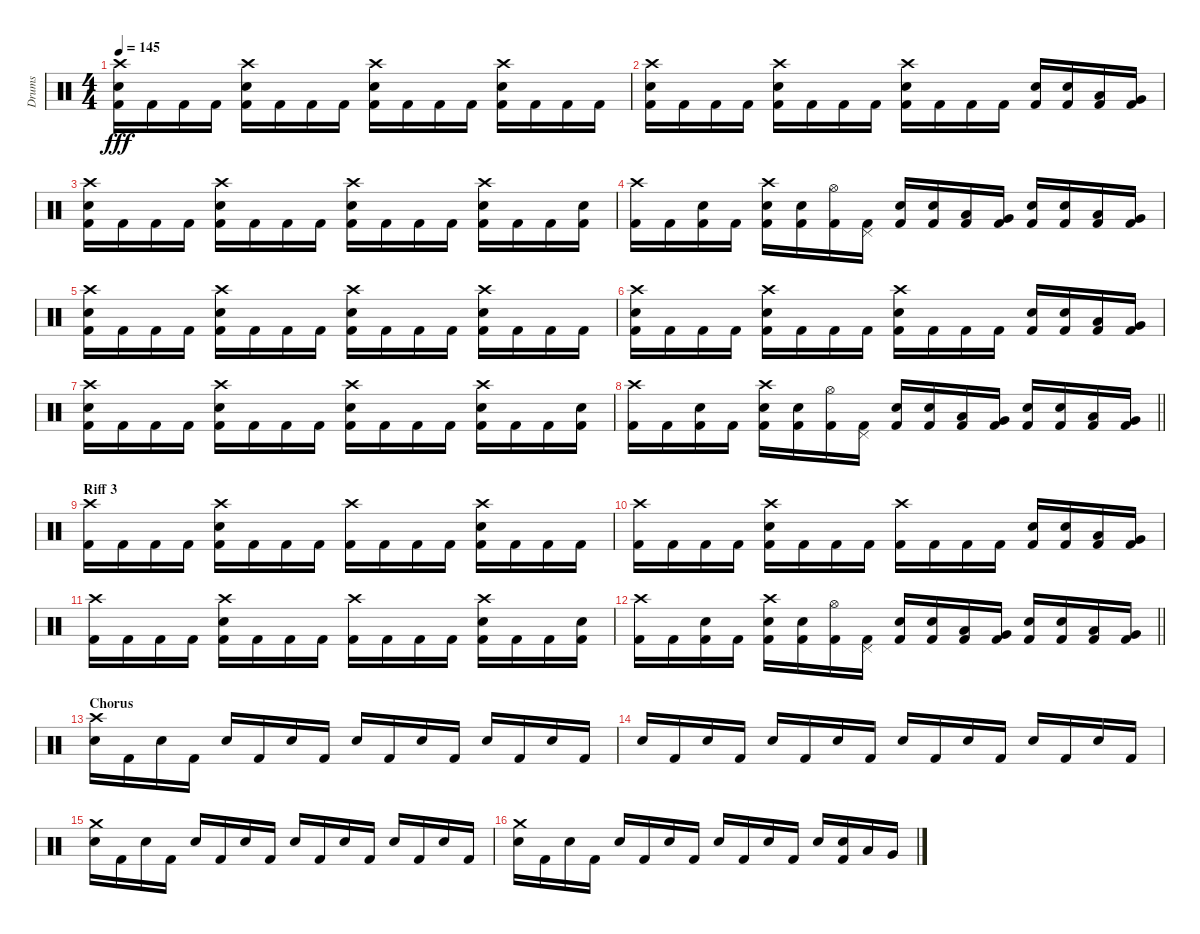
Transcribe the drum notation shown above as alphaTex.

\track ("Drums" "Drums") {instrument percussion}
\staff {score}
\articulation defaults
\ts (4 4)
\tempo 145
\clef neutral
\ks c
("Crash high (hit)" "Kick (hit) 2" "Snare (hit) 2").16{dy fff} "Kick (hit) 2".16 "Kick (hit) 2".16 "Kick (hit) 2".16 ("Crash high (hit)" "Kick (hit) 2" "Snare (hit) 2").16 "Kick (hit) 2".16 "Kick (hit) 2".16 "Kick (hit) 2".16 ("Crash high (hit)" "Kick (hit) 2" "Snare (hit) 2").16 "Kick (hit) 2".16 "Kick (hit) 2".16 "Kick (hit) 2".16 ("Crash high (hit)" "Kick (hit) 2" "Snare (hit) 2").16 "Kick (hit) 2".16 "Kick (hit) 2".16 "Kick (hit) 2".16 |
("Crash high (hit)" "Kick (hit) 2" "Snare (hit) 2").16 "Kick (hit) 2".16 "Kick (hit) 2".16 "Kick (hit) 2".16 ("Crash high (hit)" "Kick (hit) 2" "Snare (hit) 2").16 "Kick (hit) 2".16 "Kick (hit) 2".16 "Kick (hit) 2".16 ("Crash high (hit)" "Kick (hit) 2" "Snare (hit) 2").16 "Kick (hit) 2".16 "Kick (hit) 2".16 "Kick (hit) 2".16 ("Kick (hit) 2" "Snare (hit) 2").16 ("Kick (hit) 2" "Snare (hit) 2").16 ("Kick (hit) 2" "Low Tom (hit)").16 ("Kick (hit) 2" "Very Low Tom (hit)").16 |
("Crash high (hit)" "Kick (hit) 2" "Snare (hit) 2").16 "Kick (hit) 2".16 "Kick (hit) 2".16 "Kick (hit) 2".16 ("Crash high (hit)" "Kick (hit) 2" "Snare (hit) 2").16 "Kick (hit) 2".16 "Kick (hit) 2".16 "Kick (hit) 2".16 ("Crash high (hit)" "Kick (hit) 2" "Snare (hit) 2").16 "Kick (hit) 2".16 "Kick (hit) 2".16 "Kick (hit) 2".16 ("Crash high (hit)" "Kick (hit) 2" "Snare (hit) 2").16 "Kick (hit) 2".16 "Kick (hit) 2".16 ("Kick (hit) 2" "Snare (hit) 2").16 |
("Crash high (hit)" "Kick (hit) 2").16 "Kick (hit) 2".16 ("Kick (hit) 2" "Snare (hit) 2").16 "Kick (hit) 2".16 ("Crash high (hit)" "Kick (hit) 2" "Snare (hit) 2").16 ("Kick (hit) 2" "Snare (hit) 2").16 ("Hi-Hat (open)" "Kick (hit) 2").16 ("Pedal Hi-Hat (hit)" "Kick (hit) 2").16 ("Kick (hit) 2" "Snare (hit) 2").16 ("Kick (hit) 2" "Snare (hit) 2").16 ("Kick (hit) 2" "Low Tom (hit)").16 ("Kick (hit) 2" "Very Low Tom (hit)").16 ("Kick (hit) 2" "Snare (hit) 2").16 ("Kick (hit) 2" "Snare (hit) 2").16 ("Kick (hit) 2" "Low Tom (hit)").16 ("Kick (hit) 2" "Very Low Tom (hit)").16 |
("Crash high (hit)" "Kick (hit) 2" "Snare (hit) 2").16 "Kick (hit) 2".16 "Kick (hit) 2".16 "Kick (hit) 2".16 ("Crash high (hit)" "Kick (hit) 2" "Snare (hit) 2").16 "Kick (hit) 2".16 "Kick (hit) 2".16 "Kick (hit) 2".16 ("Crash high (hit)" "Kick (hit) 2" "Snare (hit) 2").16 "Kick (hit) 2".16 "Kick (hit) 2".16 "Kick (hit) 2".16 ("Crash high (hit)" "Kick (hit) 2" "Snare (hit) 2").16 "Kick (hit) 2".16 "Kick (hit) 2".16 "Kick (hit) 2".16 |
("Crash high (hit)" "Kick (hit) 2" "Snare (hit) 2").16 "Kick (hit) 2".16 "Kick (hit) 2".16 "Kick (hit) 2".16 ("Crash high (hit)" "Kick (hit) 2" "Snare (hit) 2").16 "Kick (hit) 2".16 "Kick (hit) 2".16 "Kick (hit) 2".16 ("Crash high (hit)" "Kick (hit) 2" "Snare (hit) 2").16 "Kick (hit) 2".16 "Kick (hit) 2".16 "Kick (hit) 2".16 ("Kick (hit) 2" "Snare (hit) 2").16 ("Kick (hit) 2" "Snare (hit) 2").16 ("Kick (hit) 2" "Low Tom (hit)").16 ("Kick (hit) 2" "Very Low Tom (hit)").16 |
("Crash high (hit)" "Kick (hit) 2" "Snare (hit) 2").16 "Kick (hit) 2".16 "Kick (hit) 2".16 "Kick (hit) 2".16 ("Crash high (hit)" "Kick (hit) 2" "Snare (hit) 2").16 "Kick (hit) 2".16 "Kick (hit) 2".16 "Kick (hit) 2".16 ("Crash high (hit)" "Kick (hit) 2" "Snare (hit) 2").16 "Kick (hit) 2".16 "Kick (hit) 2".16 "Kick (hit) 2".16 ("Crash high (hit)" "Kick (hit) 2" "Snare (hit) 2").16 "Kick (hit) 2".16 "Kick (hit) 2".16 ("Kick (hit) 2" "Snare (hit) 2").16 |
\barLineRight lightlight
("Crash high (hit)" "Kick (hit) 2").16 "Kick (hit) 2".16 ("Kick (hit) 2" "Snare (hit) 2").16 "Kick (hit) 2".16 ("Crash high (hit)" "Kick (hit) 2" "Snare (hit) 2").16 ("Kick (hit) 2" "Snare (hit) 2").16 ("Hi-Hat (open)" "Kick (hit) 2").16 ("Pedal Hi-Hat (hit)" "Kick (hit) 2").16 ("Kick (hit) 2" "Snare (hit) 2").16 ("Kick (hit) 2" "Snare (hit) 2").16 ("Kick (hit) 2" "Low Tom (hit)").16 ("Kick (hit) 2" "Very Low Tom (hit)").16 ("Kick (hit) 2" "Snare (hit) 2").16 ("Kick (hit) 2" "Snare (hit) 2").16 ("Kick (hit) 2" "Low Tom (hit)").16 ("Kick (hit) 2" "Very Low Tom (hit)").16 |
\section ("" "Riff 3")
("Crash high (hit)" "Kick (hit) 2").16 "Kick (hit) 2".16 "Kick (hit) 2".16 "Kick (hit) 2".16 ("Crash high (hit)" "Kick (hit) 2" "Snare (hit) 2").16 "Kick (hit) 2".16 "Kick (hit) 2".16 "Kick (hit) 2".16 ("Crash high (hit)" "Kick (hit) 2").16 "Kick (hit) 2".16 "Kick (hit) 2".16 "Kick (hit) 2".16 ("Crash high (hit)" "Kick (hit) 2" "Snare (hit) 2").16 "Kick (hit) 2".16 "Kick (hit) 2".16 "Kick (hit) 2".16 |
("Crash high (hit)" "Kick (hit) 2").16 "Kick (hit) 2".16 "Kick (hit) 2".16 "Kick (hit) 2".16 ("Crash high (hit)" "Kick (hit) 2" "Snare (hit) 2").16 "Kick (hit) 2".16 "Kick (hit) 2".16 "Kick (hit) 2".16 ("Crash high (hit)" "Kick (hit) 2").16 "Kick (hit) 2".16 "Kick (hit) 2".16 "Kick (hit) 2".16 ("Kick (hit) 2" "Snare (hit) 2").16 ("Kick (hit) 2" "Snare (hit) 2").16 ("Kick (hit) 2" "Low Tom (hit)").16 ("Kick (hit) 2" "Very Low Tom (hit)").16 |
("Crash high (hit)" "Kick (hit) 2").16 "Kick (hit) 2".16 "Kick (hit) 2".16 "Kick (hit) 2".16 ("Crash high (hit)" "Kick (hit) 2" "Snare (hit) 2").16 "Kick (hit) 2".16 "Kick (hit) 2".16 "Kick (hit) 2".16 ("Crash high (hit)" "Kick (hit) 2").16 "Kick (hit) 2".16 "Kick (hit) 2".16 "Kick (hit) 2".16 ("Crash high (hit)" "Kick (hit) 2" "Snare (hit) 2").16 "Kick (hit) 2".16 "Kick (hit) 2".16 ("Kick (hit) 2" "Snare (hit) 2").16 |
\barLineRight lightlight
("Crash high (hit)" "Kick (hit) 2").16 "Kick (hit) 2".16 ("Kick (hit) 2" "Snare (hit) 2").16 "Kick (hit) 2".16 ("Crash high (hit)" "Kick (hit) 2" "Snare (hit) 2").16 ("Kick (hit) 2" "Snare (hit) 2").16 ("Hi-Hat (open)" "Kick (hit) 2").16 ("Pedal Hi-Hat (hit)" "Kick (hit) 2").16 ("Kick (hit) 2" "Snare (hit) 2").16 ("Kick (hit) 2" "Snare (hit) 2").16 ("Kick (hit) 2" "Low Tom (hit)").16 ("Kick (hit) 2" "Very Low Tom (hit)").16 ("Kick (hit) 2" "Snare (hit) 2").16 ("Kick (hit) 2" "Snare (hit) 2").16 ("Kick (hit) 2" "Low Tom (hit)").16 ("Kick (hit) 2" "Very Low Tom (hit)").16 |
\section ("" "Chorus")
("Crash high (hit)" "Snare (hit) 2").16 "Kick (hit) 2".16 "Snare (hit) 2".16 "Kick (hit) 2".16 "Snare (hit) 2".16 "Kick (hit) 2".16 "Snare (hit) 2".16 "Kick (hit) 2".16 "Snare (hit) 2".16 "Kick (hit) 2".16 "Snare (hit) 2".16 "Kick (hit) 2".16 "Snare (hit) 2".16 "Kick (hit) 2".16 "Snare (hit) 2".16 "Kick (hit) 2".16 |
"Snare (hit) 2".16 "Kick (hit) 2".16 "Snare (hit) 2".16 "Kick (hit) 2".16 "Snare (hit) 2".16 "Kick (hit) 2".16 "Snare (hit) 2".16 "Kick (hit) 2".16 "Snare (hit) 2".16 "Kick (hit) 2".16 "Snare (hit) 2".16 "Kick (hit) 2".16 "Snare (hit) 2".16 "Kick (hit) 2".16 "Snare (hit) 2".16 "Kick (hit) 2".16 |
("Crash medium (hit)" "Snare (hit) 2").16 "Kick (hit) 2".16 "Snare (hit) 2".16 "Kick (hit) 2".16 "Snare (hit) 2".16 "Kick (hit) 2".16 "Snare (hit) 2".16 "Kick (hit) 2".16 "Snare (hit) 2".16 "Kick (hit) 2".16 "Snare (hit) 2".16 "Kick (hit) 2".16 "Snare (hit) 2".16 "Kick (hit) 2".16 "Snare (hit) 2".16 "Kick (hit) 2".16 |
("Crash medium (hit)" "Snare (hit) 2").16 "Kick (hit) 2".16 "Snare (hit) 2".16 "Kick (hit) 2".16 "Snare (hit) 2".16 "Kick (hit) 2".16 "Snare (hit) 2".16 "Kick (hit) 2".16 "Snare (hit) 2".16 "Kick (hit) 2".16 "Snare (hit) 2".16 "Kick (hit) 2".16 "Snare (hit) 2".16 ("Kick (hit) 2" "Snare (hit) 2").16 "Low Tom (hit)".16 "Very Low Tom (hit)".16
